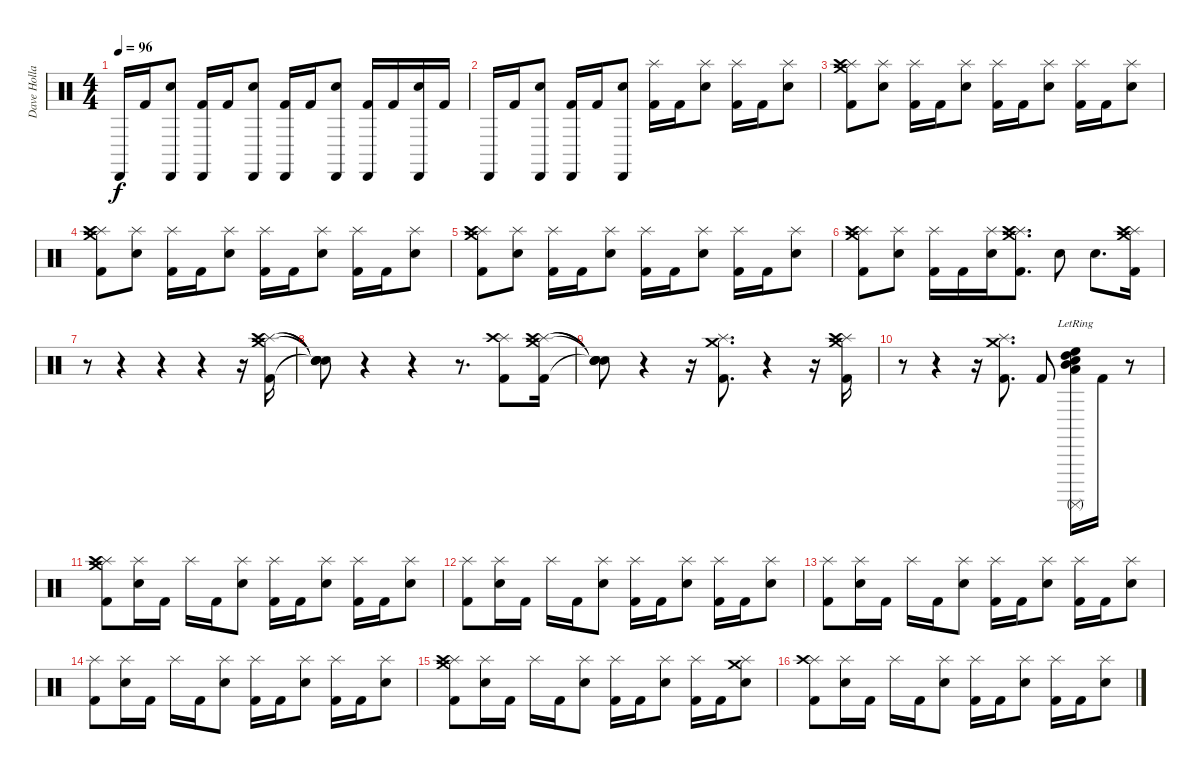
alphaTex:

\track ("Dave Holland" "Dave Holla") {instrument percussion}
\staff {score}
\articulation defaults
\ts (4 4)
\tempo 96
\clef neutral
\ks c "Cabasa (hit)".16{dy f} "Kick (hit) 2".16
("Cabasa (hit)" "Snare (hit) 2").8 ("Cabasa (hit)" "Kick (hit) 2").16 "Kick (hit) 2".16 ("Cabasa (hit)" "Snare (hit) 2").8 ("Cabasa (hit)" "Kick (hit) 2").16 "Kick (hit) 2".16 ("Cabasa (hit)" "Snare (hit) 2").8 ("Cabasa (hit)" "Kick (hit) 2").16 "Kick (hit) 2".16 ("Cabasa (hit)" "Snare (hit) 2").16 "Kick (hit) 2".16 |
"Cabasa (hit)".16 "Kick (hit) 2".16 ("Cabasa (hit)" "Snare (hit) 2").8 ("Cabasa (hit)" "Kick (hit) 2").16 "Kick (hit) 2".16 ("Cabasa (hit)" "Snare (hit) 2").8 ("Splash (hit)" "Kick (hit) 2").16 "Kick (hit) 2".16 ("Splash (hit)" "Snare (hit) 2").8 ("Splash (hit)" "Kick (hit) 2").16 "Kick (hit) 2".16 ("Splash (hit)" "Snare (hit) 2").8 |
("Crash medium (hit)" "Splash (hit)" "Crash high (hit)" "Kick (hit) 2").8 ("Splash (hit)" "Snare (hit) 2").8 ("Splash (hit)" "Kick (hit) 2").16 "Kick (hit) 2".16 ("Splash (hit)" "Snare (hit) 2").8 ("Splash (hit)" "Kick (hit) 2").16 "Kick (hit) 2".16 ("Splash (hit)" "Snare (hit) 2").8 ("Splash (hit)" "Kick (hit) 2").16 "Kick (hit) 2".16 ("Splash (hit)" "Snare (hit) 2").8 |
("Crash medium (hit)" "Splash (hit)" "Crash high (hit)" "Kick (hit) 2").8 ("Splash (hit)" "Snare (hit) 2").8 ("Splash (hit)" "Kick (hit) 2").16 "Kick (hit) 2".16 ("Splash (hit)" "Snare (hit) 2").8 ("Splash (hit)" "Kick (hit) 2").16 "Kick (hit) 2".16 ("Splash (hit)" "Snare (hit) 2").8 ("Splash (hit)" "Kick (hit) 2").16 "Kick (hit) 2".16 ("Splash (hit)" "Snare (hit) 2").8 |
("Crash medium (hit)" "Splash (hit)" "Crash high (hit)" "Kick (hit) 2").8 ("Splash (hit)" "Snare (hit) 2").8 ("Splash (hit)" "Kick (hit) 2").16 "Kick (hit) 2".16 ("Splash (hit)" "Snare (hit) 2").8 ("Splash (hit)" "Kick (hit) 2").16 "Kick (hit) 2".16 ("Splash (hit)" "Snare (hit) 2").8 ("Splash (hit)" "Kick (hit) 2").16 "Kick (hit) 2".16 ("Splash (hit)" "Snare (hit) 2").8 |
("Crash medium (hit)" "Splash (hit)" "Crash high (hit)" "Kick (hit) 2").8 ("Splash (hit)" "Snare (hit) 2").8 ("Splash (hit)" "Kick (hit) 2").16 "Kick (hit) 2".16 ("Splash (hit)" "Snare (hit) 2").16 ("Crash medium (hit)" "Splash (hit)" "Crash high (hit)" "Kick (hit) 2").8{d} "Snare (hit) 2".8 "Snare (hit) 2".8{d} ("Crash medium (hit)" "Splash (hit)" "Crash high (hit)" "Kick (hit) 2").16 |
r.8 r.4 r.4 r.4 r.16 ("Crash medium (hit)" "Splash (hit)" "Crash high (hit)" "Kick (hit) 2").16 |
("Snare (hit)"{t} "Snare (hit)"{t} "Snare (hit)"{t} "Snare (hit)"{t}).8 r.4 r.4 r.8{d} ("Splash (hit)" "Crash high (hit)" "Kick (hit) 2").8 ("Crash medium (hit)" "Splash (hit)" "Crash high (hit)" "Kick (hit) 2").16 |
("Snare (hit)"{t} "Snare (hit)"{t} "Snare (hit)"{t} "Snare (hit)"{t}).8 r.4 r.16 ("Crash medium (hit)" "Splash (hit)" "Kick (hit) 2").8{d} r.4 r.16 ("Crash medium (hit)" "Splash (hit)" "Crash high (hit)" "Kick (hit) 2").16 |
r.8 r.4 r.16 ("Crash medium (hit)" "Splash (hit)" "Kick (hit) 2").8{d} "Kick (hit) 2".8 ("Low Floor Tom (hit)"{lr} "Surdo (mute)"{lr} "Mid Tom (hit)"{lr} "High Tom (hit)"{lr} "High Floor Tom (hit)"{lr} "Snare (hit) 2"{lr}).16 "Kick (hit) 2".16 r.8 |
("Crash medium (hit)" "Splash (hit)" "Crash high (hit)" "Kick (hit) 2").8 ("Splash (hit)" "Snare (hit) 2").16 "Kick (hit) 2".16 "Splash (hit)".16 "Kick (hit) 2".16 ("Splash (hit)" "Snare (hit) 2").8 ("Splash (hit)" "Kick (hit) 2").16 "Kick (hit) 2".16 ("Splash (hit)" "Snare (hit) 2").8 ("Splash (hit)" "Kick (hit) 2").16 "Kick (hit) 2".16 ("Splash (hit)" "Snare (hit) 2").8 |
("Splash (hit)" "Kick (hit) 2").8 ("Splash (hit)" "Snare (hit) 2").16 "Kick (hit) 2".16 "Splash (hit)".16 "Kick (hit) 2".16 ("Splash (hit)" "Snare (hit) 2").8 ("Splash (hit)" "Kick (hit) 2").16 "Kick (hit) 2".16 ("Splash (hit)" "Snare (hit) 2").8 ("Splash (hit)" "Kick (hit) 2").16 "Kick (hit) 2".16 ("Splash (hit)" "Snare (hit) 2").8 |
("Splash (hit)" "Kick (hit) 2").8 ("Splash (hit)" "Snare (hit) 2").16 "Kick (hit) 2".16 "Splash (hit)".16 "Kick (hit) 2".16 ("Splash (hit)" "Snare (hit) 2").8 ("Splash (hit)" "Kick (hit) 2").16 "Kick (hit) 2".16 ("Splash (hit)" "Snare (hit) 2").8 ("Splash (hit)" "Kick (hit) 2").16 "Kick (hit) 2".16 ("Splash (hit)" "Snare (hit) 2").8 |
("Splash (hit)" "Kick (hit) 2").8 ("Splash (hit)" "Snare (hit) 2").16 "Kick (hit) 2".16 "Splash (hit)".16 "Kick (hit) 2".16 ("Splash (hit)" "Snare (hit) 2").8 ("Splash (hit)" "Kick (hit) 2").16 "Kick (hit) 2".16 ("Splash (hit)" "Snare (hit) 2").8 ("Splash (hit)" "Kick (hit) 2").16 "Kick (hit) 2".16 ("Splash (hit)" "Snare (hit) 2").8 |
("Crash medium (hit)" "Splash (hit)" "Crash high (hit)" "Kick (hit) 2").8 ("Splash (hit)" "Snare (hit) 2").16 "Kick (hit) 2".16 "Splash (hit)".16 "Kick (hit) 2".16 ("Splash (hit)" "Snare (hit) 2").8 ("Splash (hit)" "Kick (hit) 2").16 "Kick (hit) 2".16 ("Splash (hit)" "Snare (hit) 2").8 ("Splash (hit)" "Kick (hit) 2").16 "Kick (hit) 2".16 ("Crash medium (hit)" "Splash (hit)" "Snare (hit) 2").8 |
("Splash (hit)" "Crash high (hit)" "Kick (hit) 2").8 ("Splash (hit)" "Snare (hit) 2").16 "Kick (hit) 2".16 "Splash (hit)".16 "Kick (hit) 2".16 ("Splash (hit)" "Snare (hit) 2").8 ("Splash (hit)" "Kick (hit) 2").16 "Kick (hit) 2".16 ("Splash (hit)" "Snare (hit) 2").8 ("Splash (hit)" "Kick (hit) 2").16 "Kick (hit) 2".16 ("Splash (hit)" "Snare (hit) 2").8
